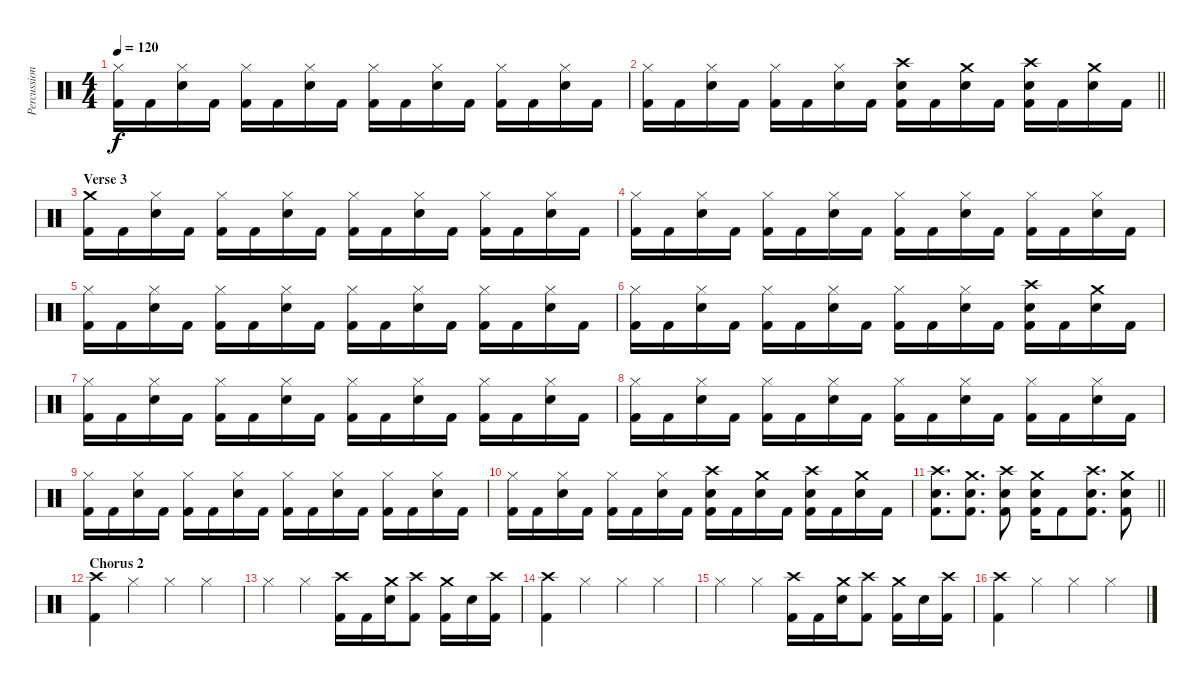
\track ("Percussion" "Percussion") {instrument percussion}
\staff {score}
\articulation defaults
\ts (4 4)
\tempo 120
\clef neutral
\ks c
("Hi-Hat (closed)" "Kick (hit) 2").16{dy f} "Kick (hit) 2".16 ("Electric Snare (hit)" "Hi-Hat (closed)").16 "Kick (hit) 2".16 ("Hi-Hat (closed)" "Kick (hit) 2").16 "Kick (hit) 2".16 ("Electric Snare (hit)" "Hi-Hat (closed)").16 "Kick (hit) 2".16 ("Hi-Hat (closed)" "Kick (hit) 2").16 "Kick (hit) 2".16 ("Electric Snare (hit)" "Hi-Hat (closed)").16 "Kick (hit) 2".16 ("Hi-Hat (closed)" "Kick (hit) 2").16 "Kick (hit) 2".16 ("Electric Snare (hit)" "Hi-Hat (closed)").16 "Kick (hit) 2".16 |
\barLineRight lightlight
("Hi-Hat (closed)" "Kick (hit) 2").16 "Kick (hit) 2".16 ("Electric Snare (hit)" "Hi-Hat (closed)").16 "Kick (hit) 2".16 ("Hi-Hat (closed)" "Kick (hit) 2").16 "Kick (hit) 2".16 ("Electric Snare (hit)" "Hi-Hat (closed)").16 "Kick (hit) 2".16 ("Crash high (hit)" "Electric Snare (hit)" "Kick (hit) 2").16 "Kick (hit) 2".16 ("Crash medium (hit)" "Electric Snare (hit)").16 "Kick (hit) 2".16 ("Crash high (hit)" "Electric Snare (hit)" "Kick (hit) 2").16 "Kick (hit) 2".16 ("Crash medium (hit)" "Electric Snare (hit)").16 "Kick (hit) 2".16 |
\section ("" "Verse 3")
("Crash medium (hit)" "Kick (hit) 2").16 "Kick (hit) 2".16 ("Electric Snare (hit)" "Hi-Hat (closed)").16 "Kick (hit) 2".16 ("Hi-Hat (closed)" "Kick (hit) 2").16 "Kick (hit) 2".16 ("Electric Snare (hit)" "Hi-Hat (closed)").16 "Kick (hit) 2".16 ("Hi-Hat (closed)" "Kick (hit) 2").16 "Kick (hit) 2".16 ("Electric Snare (hit)" "Hi-Hat (closed)").16 "Kick (hit) 2".16 ("Hi-Hat (closed)" "Kick (hit) 2").16 "Kick (hit) 2".16 ("Electric Snare (hit)" "Hi-Hat (closed)").16 "Kick (hit) 2".16 |
("Hi-Hat (closed)" "Kick (hit) 2").16 "Kick (hit) 2".16 ("Electric Snare (hit)" "Hi-Hat (closed)").16 "Kick (hit) 2".16 ("Hi-Hat (closed)" "Kick (hit) 2").16 "Kick (hit) 2".16 ("Electric Snare (hit)" "Hi-Hat (closed)").16 "Kick (hit) 2".16 ("Hi-Hat (closed)" "Kick (hit) 2").16 "Kick (hit) 2".16 ("Electric Snare (hit)" "Hi-Hat (closed)").16 "Kick (hit) 2".16 ("Hi-Hat (closed)" "Kick (hit) 2").16 "Kick (hit) 2".16 ("Electric Snare (hit)" "Hi-Hat (closed)").16 "Kick (hit) 2".16 |
("Hi-Hat (closed)" "Kick (hit) 2").16 "Kick (hit) 2".16 ("Electric Snare (hit)" "Hi-Hat (closed)").16 "Kick (hit) 2".16 ("Hi-Hat (closed)" "Kick (hit) 2").16 "Kick (hit) 2".16 ("Electric Snare (hit)" "Hi-Hat (closed)").16 "Kick (hit) 2".16 ("Hi-Hat (closed)" "Kick (hit) 2").16 "Kick (hit) 2".16 ("Electric Snare (hit)" "Hi-Hat (closed)").16 "Kick (hit) 2".16 ("Hi-Hat (closed)" "Kick (hit) 2").16 "Kick (hit) 2".16 ("Electric Snare (hit)" "Hi-Hat (closed)").16 "Kick (hit) 2".16 |
("Hi-Hat (closed)" "Kick (hit) 2").16 "Kick (hit) 2".16 ("Electric Snare (hit)" "Hi-Hat (closed)").16 "Kick (hit) 2".16 ("Hi-Hat (closed)" "Kick (hit) 2").16 "Kick (hit) 2".16 ("Electric Snare (hit)" "Hi-Hat (closed)").16 "Kick (hit) 2".16 ("Hi-Hat (closed)" "Kick (hit) 2").16 "Kick (hit) 2".16 ("Electric Snare (hit)" "Hi-Hat (closed)").16 "Kick (hit) 2".16 ("Crash high (hit)" "Electric Snare (hit)" "Kick (hit) 2").16 "Kick (hit) 2".16 ("Crash medium (hit)" "Electric Snare (hit)").16 "Kick (hit) 2".16 |
("Hi-Hat (closed)" "Kick (hit) 2").16 "Kick (hit) 2".16 ("Electric Snare (hit)" "Hi-Hat (closed)").16 "Kick (hit) 2".16 ("Hi-Hat (closed)" "Kick (hit) 2").16 "Kick (hit) 2".16 ("Electric Snare (hit)" "Hi-Hat (closed)").16 "Kick (hit) 2".16 ("Hi-Hat (closed)" "Kick (hit) 2").16 "Kick (hit) 2".16 ("Electric Snare (hit)" "Hi-Hat (closed)").16 "Kick (hit) 2".16 ("Hi-Hat (closed)" "Kick (hit) 2").16 "Kick (hit) 2".16 ("Electric Snare (hit)" "Hi-Hat (closed)").16 "Kick (hit) 2".16 |
("Hi-Hat (closed)" "Kick (hit) 2").16 "Kick (hit) 2".16 ("Electric Snare (hit)" "Hi-Hat (closed)").16 "Kick (hit) 2".16 ("Hi-Hat (closed)" "Kick (hit) 2").16 "Kick (hit) 2".16 ("Electric Snare (hit)" "Hi-Hat (closed)").16 "Kick (hit) 2".16 ("Hi-Hat (closed)" "Kick (hit) 2").16 "Kick (hit) 2".16 ("Electric Snare (hit)" "Hi-Hat (closed)").16 "Kick (hit) 2".16 ("Hi-Hat (closed)" "Kick (hit) 2").16 "Kick (hit) 2".16 ("Electric Snare (hit)" "Hi-Hat (closed)").16 "Kick (hit) 2".16 |
("Hi-Hat (closed)" "Kick (hit) 2").16 "Kick (hit) 2".16 ("Electric Snare (hit)" "Hi-Hat (closed)").16 "Kick (hit) 2".16 ("Hi-Hat (closed)" "Kick (hit) 2").16 "Kick (hit) 2".16 ("Electric Snare (hit)" "Hi-Hat (closed)").16 "Kick (hit) 2".16 ("Hi-Hat (closed)" "Kick (hit) 2").16 "Kick (hit) 2".16 ("Electric Snare (hit)" "Hi-Hat (closed)").16 "Kick (hit) 2".16 ("Hi-Hat (closed)" "Kick (hit) 2").16 "Kick (hit) 2".16 ("Electric Snare (hit)" "Hi-Hat (closed)").16 "Kick (hit) 2".16 |
("Hi-Hat (closed)" "Kick (hit) 2").16 "Kick (hit) 2".16 ("Electric Snare (hit)" "Hi-Hat (closed)").16 "Kick (hit) 2".16 ("Hi-Hat (closed)" "Kick (hit) 2").16 "Kick (hit) 2".16 ("Electric Snare (hit)" "Hi-Hat (closed)").16 "Kick (hit) 2".16 ("Crash high (hit)" "Electric Snare (hit)" "Kick (hit) 2").16 "Kick (hit) 2".16 ("Crash medium (hit)" "Electric Snare (hit)").16 "Kick (hit) 2".16 ("Crash high (hit)" "Electric Snare (hit)" "Kick (hit) 2").16 "Kick (hit) 2".16 ("Crash medium (hit)" "Electric Snare (hit)").16 "Kick (hit) 2".16 |
\barLineRight lightlight
("Crash high (hit)" "Electric Snare (hit)" "Kick (hit) 2").8{d} ("Crash medium (hit)" "Electric Snare (hit)" "Kick (hit) 2").8{d} ("Crash high (hit)" "Electric Snare (hit)" "Kick (hit) 2").8 ("Crash medium (hit)" "Electric Snare (hit)" "Kick (hit) 2").16 "Kick (hit) 2".8 ("Crash high (hit)" "Electric Snare (hit)" "Kick (hit) 2").8{d} ("Crash medium (hit)" "Electric Snare (hit)" "Kick (hit) 2").8 |
\section ("" "Chorus 2")
("Crash high (hit)" "Kick (hit) 2").4 "Hi-Hat (closed)".4 "Hi-Hat (closed)".4 "Hi-Hat (closed)".4 |
"Hi-Hat (closed)".4 "Hi-Hat (closed)".4 ("Crash high (hit)" "Kick (hit) 2").16 "Kick (hit) 2".16 ("Crash medium (hit)" "Electric Snare (hit)").16 ("Crash high (hit)" "Kick (hit) 2").8 ("Crash medium (hit)" "Kick (hit) 2").16 "Electric Snare (hit)".16 ("Crash high (hit)" "Kick (hit) 2").16 |
("Crash high (hit)" "Kick (hit) 2").4 "Hi-Hat (closed)".4 "Hi-Hat (closed)".4 "Hi-Hat (closed)".4 |
"Hi-Hat (closed)".4 "Hi-Hat (closed)".4 ("Crash high (hit)" "Kick (hit) 2").16 "Kick (hit) 2".16 ("Crash medium (hit)" "Electric Snare (hit)").16 ("Crash high (hit)" "Kick (hit) 2").8 ("Crash medium (hit)" "Kick (hit) 2").16 "Electric Snare (hit)".16 ("Crash high (hit)" "Kick (hit) 2").16 |
("Crash high (hit)" "Kick (hit) 2").4 "Hi-Hat (closed)".4 "Hi-Hat (closed)".4 "Hi-Hat (closed)".4
